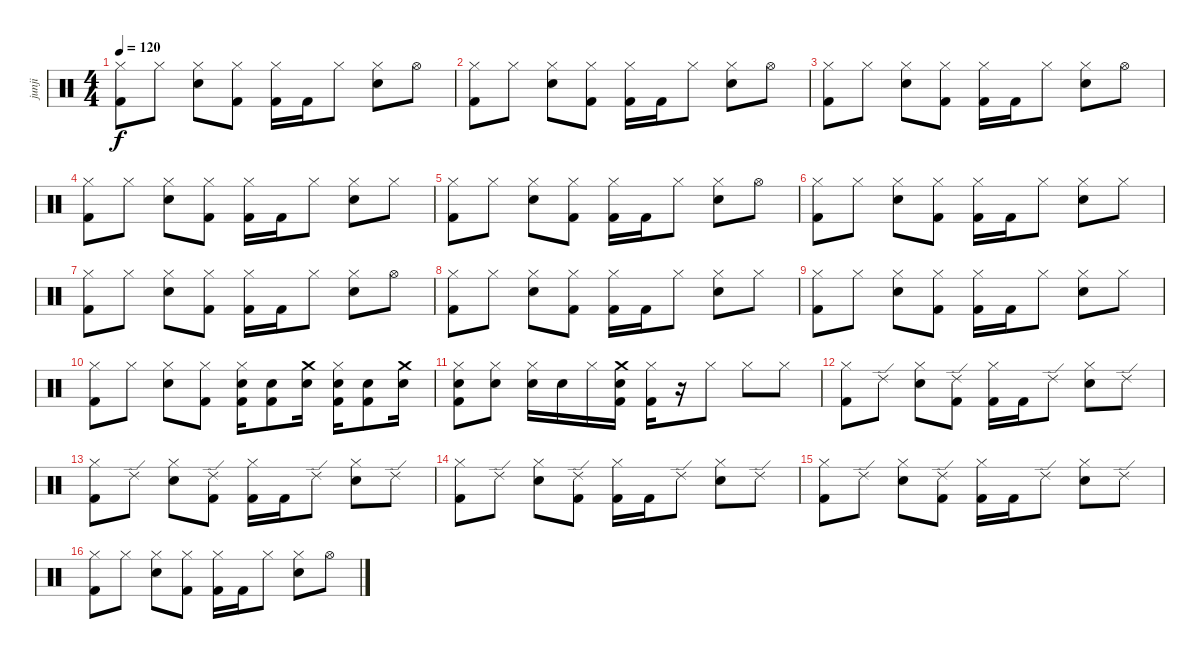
\track ("junji" "junji") {instrument percussion}
\staff {score}
\articulation defaults
\ts (4 4)
\tempo 120
\clef neutral
\ks c
("Hi-Hat (closed)" "Kick (hit) 2").8{dy f} "Hi-Hat (closed)".8 ("Hi-Hat (closed)" "Snare (hit) 2").8 ("Hi-Hat (closed)" "Kick (hit) 2").8 ("Hi-Hat (closed)" "Kick (hit) 2"{x}).16 "Kick (hit) 2".16 "Hi-Hat (closed)".8 ("Hi-Hat (closed)" "Snare (hit) 2").8 "Hi-Hat (open)".8 |
("Hi-Hat (closed)" "Kick (hit) 2").8 "Hi-Hat (closed)".8 ("Hi-Hat (closed)" "Snare (hit) 2").8 ("Hi-Hat (closed)" "Kick (hit) 2").8 ("Hi-Hat (closed)" "Kick (hit) 2"{x}).16 "Kick (hit) 2".16 "Hi-Hat (closed)".8 ("Hi-Hat (closed)" "Snare (hit) 2").8 "Hi-Hat (open)".8 |
("Hi-Hat (closed)" "Kick (hit) 2").8 "Hi-Hat (closed)".8 ("Hi-Hat (closed)" "Snare (hit) 2").8 ("Hi-Hat (closed)" "Kick (hit) 2").8 ("Hi-Hat (closed)" "Kick (hit) 2"{x}).16 "Kick (hit) 2".16 "Hi-Hat (closed)".8 ("Hi-Hat (closed)" "Snare (hit) 2").8 "Hi-Hat (open)".8 |
("Hi-Hat (closed)" "Kick (hit) 2").8 "Hi-Hat (closed)".8 ("Hi-Hat (closed)" "Snare (hit) 2").8 ("Hi-Hat (closed)" "Kick (hit) 2").8 ("Hi-Hat (closed)" "Kick (hit) 2"{x}).16 "Kick (hit) 2".16 "Hi-Hat (closed)".8 ("Hi-Hat (closed)" "Snare (hit) 2").8 "Hi-Hat (closed)".8 |
("Hi-Hat (closed)" "Kick (hit) 2").8 "Hi-Hat (closed)".8 ("Hi-Hat (closed)" "Snare (hit) 2").8 ("Hi-Hat (closed)" "Kick (hit) 2").8 ("Hi-Hat (closed)" "Kick (hit) 2"{x}).16 "Kick (hit) 2".16 "Hi-Hat (closed)".8 ("Hi-Hat (closed)" "Snare (hit) 2").8 "Hi-Hat (open)".8 |
("Hi-Hat (closed)" "Kick (hit) 2").8 "Hi-Hat (closed)".8 ("Hi-Hat (closed)" "Snare (hit) 2").8 ("Hi-Hat (closed)" "Kick (hit) 2").8 ("Hi-Hat (closed)" "Kick (hit) 2"{x}).16 "Kick (hit) 2".16 "Hi-Hat (closed)".8 ("Hi-Hat (closed)" "Snare (hit) 2").8 "Hi-Hat (closed)".8 |
("Hi-Hat (closed)" "Kick (hit) 2").8 "Hi-Hat (closed)".8 ("Hi-Hat (closed)" "Snare (hit) 2").8 ("Hi-Hat (closed)" "Kick (hit) 2").8 ("Hi-Hat (closed)" "Kick (hit) 2"{x}).16 "Kick (hit) 2".16 "Hi-Hat (closed)".8 ("Hi-Hat (closed)" "Snare (hit) 2").8 "Hi-Hat (open)".8 |
("Hi-Hat (closed)" "Kick (hit) 2").8 "Hi-Hat (closed)".8 ("Hi-Hat (closed)" "Snare (hit) 2").8 ("Hi-Hat (closed)" "Kick (hit) 2").8 ("Hi-Hat (closed)" "Kick (hit) 2"{x}).16 "Kick (hit) 2".16 "Hi-Hat (closed)".8 ("Hi-Hat (closed)" "Snare (hit) 2").8 "Hi-Hat (closed)".8 |
("Hi-Hat (closed)" "Kick (hit) 2").8 "Hi-Hat (closed)".8 ("Hi-Hat (closed)" "Snare (hit) 2").8 ("Hi-Hat (closed)" "Kick (hit) 2").8 ("Hi-Hat (closed)" "Kick (hit) 2"{x}).16 "Kick (hit) 2".16 "Hi-Hat (closed)".8 ("Hi-Hat (closed)" "Snare (hit) 2").8 "Hi-Hat (closed)".8 |
("Hi-Hat (closed)" "Kick (hit) 2").8 "Hi-Hat (closed)".8 ("Hi-Hat (closed)" "Snare (hit) 2").8 ("Hi-Hat (closed)" "Kick (hit) 2").8 ("Hi-Hat (closed)" "Snare (hit) 2" "Kick (hit) 2"{x}).16 ("Snare (hit) 2" "Kick (hit) 2").8 ("Crash medium (hit)" "Snare (hit) 2").16 ("Hi-Hat (closed)" "Snare (hit) 2" "Kick (hit) 2"{x}).16 ("Snare (hit) 2" "Kick (hit) 2").8 ("Crash medium (hit)" "Snare (hit) 2").16 |
("Hi-Hat (closed)" "Snare (hit) 2" "Kick (hit) 2").8 ("Hi-Hat (closed)" "Snare (hit) 2").8 ("Hi-Hat (closed)" "Snare (hit) 2").16 "Snare (hit) 2".16 "Hi-Hat (closed)".16 ("Crash medium (hit)" "Snare (hit) 2" "Kick (hit) 2").16 ("Hi-Hat (closed)" "Kick (hit) 2"{x}).16 r.16 "Hi-Hat (closed)".8 "Hi-Hat (closed)".8 "Hi-Hat (closed)".8 |
("Hi-Hat (closed)" "Kick (hit) 2").8 "Ride (edge) 2".8 ("Hi-Hat (closed)" "Snare (hit) 2").8 ("Ride (edge) 2" "Kick (hit) 2").8 ("Hi-Hat (closed)" "Kick (hit) 2"{x}).16 "Kick (hit) 2".16 "Ride (edge) 2".8 ("Hi-Hat (closed)" "Snare (hit) 2").8 "Ride (edge) 2".8 |
("Hi-Hat (closed)" "Kick (hit) 2").8 "Ride (edge) 2".8 ("Hi-Hat (closed)" "Snare (hit) 2").8 ("Ride (edge) 2" "Kick (hit) 2").8 ("Hi-Hat (closed)" "Kick (hit) 2"{x}).16 "Kick (hit) 2".16 "Ride (edge) 2".8 ("Hi-Hat (closed)" "Snare (hit) 2").8 "Ride (edge) 2".8 |
("Hi-Hat (closed)" "Kick (hit) 2").8 "Ride (edge) 2".8 ("Hi-Hat (closed)" "Snare (hit) 2").8 ("Ride (edge) 2" "Kick (hit) 2").8 ("Hi-Hat (closed)" "Kick (hit) 2"{x}).16 "Kick (hit) 2".16 "Ride (edge) 2".8 ("Hi-Hat (closed)" "Snare (hit) 2").8 "Ride (edge) 2".8 |
("Hi-Hat (closed)" "Kick (hit) 2").8 "Ride (edge) 2".8 ("Hi-Hat (closed)" "Snare (hit) 2").8 ("Ride (edge) 2" "Kick (hit) 2").8 ("Hi-Hat (closed)" "Kick (hit) 2"{x}).16 "Kick (hit) 2".16 "Ride (edge) 2".8 ("Hi-Hat (closed)" "Snare (hit) 2").8 "Ride (edge) 2".8 |
("Hi-Hat (closed)" "Kick (hit) 2").8 "Hi-Hat (closed)".8 ("Hi-Hat (closed)" "Snare (hit) 2").8 ("Hi-Hat (closed)" "Kick (hit) 2").8 ("Hi-Hat (closed)" "Kick (hit) 2"{x}).16 "Kick (hit) 2".16 "Hi-Hat (closed)".8 ("Hi-Hat (closed)" "Snare (hit) 2").8 "Hi-Hat (open)".8
